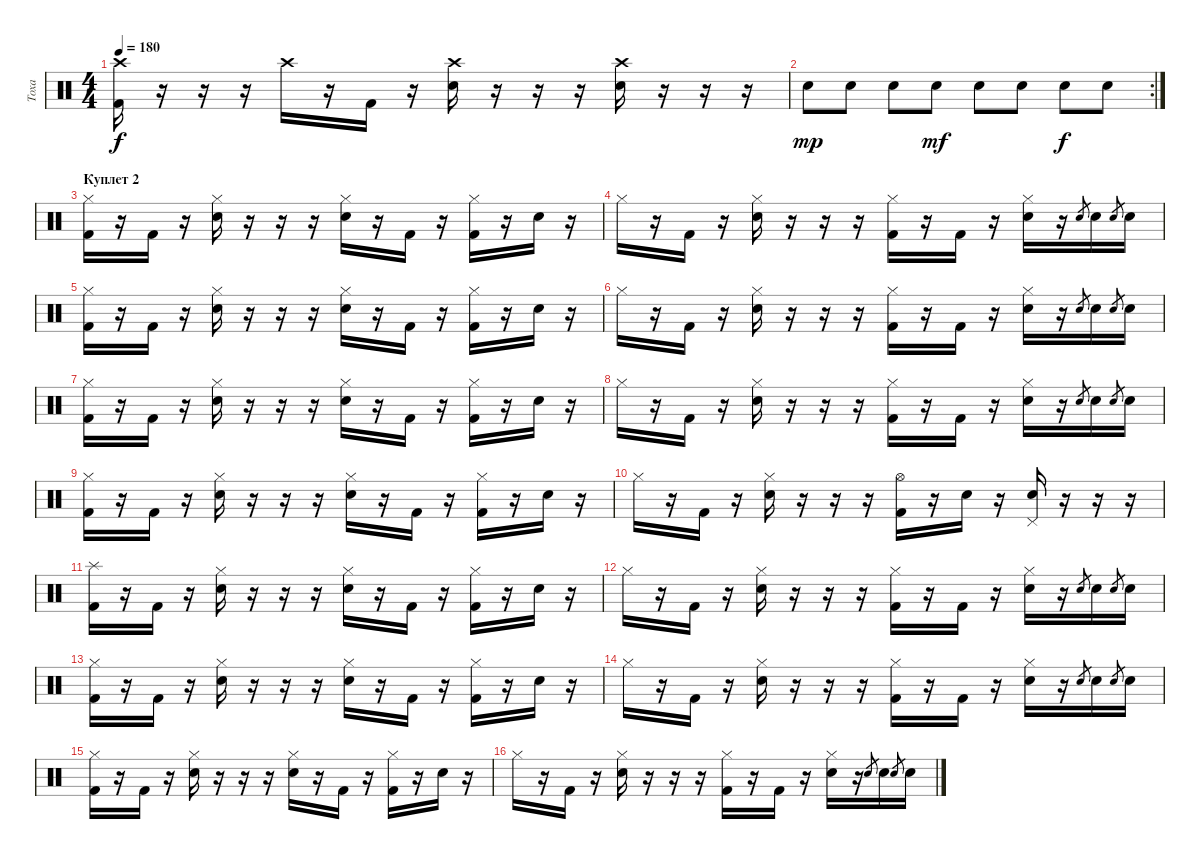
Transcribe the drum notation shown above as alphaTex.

\track ("Тоха" "Тоха") {instrument percussion}
\staff {score}
\articulation defaults
\ts (4 4)
\tempo 180
\clef neutral
\ks c
("Crash high (hit)" "Kick (hit) 2").16{dy f} r.16 r.16 r.16 "Crash high (hit)".16 r.16 "Kick (hit) 2".16 r.16 ("Crash high (hit)" "Electric Snare (hit)").16 r.16 r.16 r.16 ("Crash high (hit)" "Electric Snare (hit)").16 r.16 r.16 r.16 |
\rc 2 "Electric Snare (hit)".8{dy mp} "Electric Snare (hit)".8 "Electric Snare (hit)".8 "Electric Snare (hit)".8{dy mf} "Electric Snare (hit)".8 "Electric Snare (hit)".8 "Electric Snare (hit)".8{dy f} "Electric Snare (hit)".8
|
\section ("" "Куплет 2")
("Hi-Hat (closed)" "Kick (hit) 2").16 r.16 "Kick (hit) 2".16 r.16 ("Hi-Hat (closed)" "Electric Snare (hit)").16 r.16 r.16 r.16 ("Hi-Hat (closed)" "Electric Snare (hit)").16 r.16 "Kick (hit) 2".16 r.16 ("Hi-Hat (closed)" "Kick (hit) 2").16 r.16 "Electric Snare (hit)".16 r.16 |
"Hi-Hat (closed)".16 r.16 "Kick (hit) 2".16 r.16 ("Hi-Hat (closed)" "Electric Snare (hit)").16 r.16 r.16 r.16 ("Hi-Hat (closed)" "Kick (hit) 2").16 r.16 "Kick (hit) 2".16 r.16 ("Hi-Hat (closed)" "Electric Snare (hit)").16 r.16 "Electric Snare (hit)".8{gr} "Electric Snare (hit)".16 "Electric Snare (hit)".8{gr} "Electric Snare (hit)".16 |
("Hi-Hat (closed)" "Kick (hit) 2").16 r.16 "Kick (hit) 2".16 r.16 ("Hi-Hat (closed)" "Electric Snare (hit)").16 r.16 r.16 r.16 ("Hi-Hat (closed)" "Electric Snare (hit)").16 r.16 "Kick (hit) 2".16 r.16 ("Hi-Hat (closed)" "Kick (hit) 2").16 r.16 "Electric Snare (hit)".16 r.16 |
"Hi-Hat (closed)".16 r.16 "Kick (hit) 2".16 r.16 ("Hi-Hat (closed)" "Electric Snare (hit)").16 r.16 r.16 r.16 ("Hi-Hat (closed)" "Kick (hit) 2").16 r.16 "Kick (hit) 2".16 r.16 ("Hi-Hat (closed)" "Electric Snare (hit)").16 r.16 "Electric Snare (hit)".8{gr} "Electric Snare (hit)".16 "Electric Snare (hit)".8{gr} "Electric Snare (hit)".16 |
("Hi-Hat (closed)" "Kick (hit) 2").16 r.16 "Kick (hit) 2".16 r.16 ("Hi-Hat (closed)" "Electric Snare (hit)").16 r.16 r.16 r.16 ("Hi-Hat (closed)" "Electric Snare (hit)").16 r.16 "Kick (hit) 2".16 r.16 ("Hi-Hat (closed)" "Kick (hit) 2").16 r.16 "Electric Snare (hit)".16 r.16 |
"Hi-Hat (closed)".16 r.16 "Kick (hit) 2".16 r.16 ("Hi-Hat (closed)" "Electric Snare (hit)").16 r.16 r.16 r.16 ("Hi-Hat (closed)" "Kick (hit) 2").16 r.16 "Kick (hit) 2".16 r.16 ("Hi-Hat (closed)" "Electric Snare (hit)").16 r.16 "Electric Snare (hit)".8{gr} "Electric Snare (hit)".16 "Electric Snare (hit)".8{gr} "Electric Snare (hit)".16 |
("Hi-Hat (closed)" "Kick (hit) 2").16 r.16 "Kick (hit) 2".16 r.16 ("Hi-Hat (closed)" "Electric Snare (hit)").16 r.16 r.16 r.16 ("Hi-Hat (closed)" "Electric Snare (hit)").16 r.16 "Kick (hit) 2".16 r.16 ("Hi-Hat (closed)" "Kick (hit) 2").16 r.16 "Electric Snare (hit)".16 r.16 |
"Hi-Hat (closed)".16 r.16 "Kick (hit) 2".16 r.16 ("Hi-Hat (closed)" "Electric Snare (hit)").16 r.16 r.16 r.16 ("Hi-Hat (open)" "Kick (hit) 2").16 r.16 "Electric Snare (hit)".16 r.16 ("Pedal Hi-Hat (hit)" "Electric Snare (hit)").16 r.16 r.16 r.16 |
("Splash (hit)" "Kick (hit) 2").16 r.16 "Kick (hit) 2".16 r.16 ("Hi-Hat (closed)" "Electric Snare (hit)").16 r.16 r.16 r.16 ("Hi-Hat (closed)" "Electric Snare (hit)").16 r.16 "Kick (hit) 2".16 r.16 ("Hi-Hat (closed)" "Kick (hit) 2").16 r.16 "Electric Snare (hit)".16 r.16 |
"Hi-Hat (closed)".16 r.16 "Kick (hit) 2".16 r.16 ("Hi-Hat (closed)" "Electric Snare (hit)").16 r.16 r.16 r.16 ("Hi-Hat (closed)" "Kick (hit) 2").16 r.16 "Kick (hit) 2".16 r.16 ("Hi-Hat (closed)" "Electric Snare (hit)").16 r.16 "Electric Snare (hit)".8{gr} "Electric Snare (hit)".16 "Electric Snare (hit)".8{gr} "Electric Snare (hit)".16 |
("Hi-Hat (closed)" "Kick (hit) 2").16 r.16 "Kick (hit) 2".16 r.16 ("Hi-Hat (closed)" "Electric Snare (hit)").16 r.16 r.16 r.16 ("Hi-Hat (closed)" "Electric Snare (hit)").16 r.16 "Kick (hit) 2".16 r.16 ("Hi-Hat (closed)" "Kick (hit) 2").16 r.16 "Electric Snare (hit)".16 r.16 |
"Hi-Hat (closed)".16 r.16 "Kick (hit) 2".16 r.16 ("Hi-Hat (closed)" "Electric Snare (hit)").16 r.16 r.16 r.16 ("Hi-Hat (closed)" "Kick (hit) 2").16 r.16 "Kick (hit) 2".16 r.16 ("Hi-Hat (closed)" "Electric Snare (hit)").16 r.16 "Electric Snare (hit)".8{gr} "Electric Snare (hit)".16 "Electric Snare (hit)".8{gr} "Electric Snare (hit)".16 |
("Hi-Hat (closed)" "Kick (hit) 2").16 r.16 "Kick (hit) 2".16 r.16 ("Hi-Hat (closed)" "Electric Snare (hit)").16 r.16 r.16 r.16 ("Hi-Hat (closed)" "Electric Snare (hit)").16 r.16 "Kick (hit) 2".16 r.16 ("Hi-Hat (closed)" "Kick (hit) 2").16 r.16 "Electric Snare (hit)".16 r.16 |
"Hi-Hat (closed)".16 r.16 "Kick (hit) 2".16 r.16 ("Hi-Hat (closed)" "Electric Snare (hit)").16 r.16 r.16 r.16 ("Hi-Hat (closed)" "Kick (hit) 2").16 r.16 "Kick (hit) 2".16 r.16 ("Hi-Hat (closed)" "Electric Snare (hit)").16 r.16 "Electric Snare (hit)".8{gr} "Electric Snare (hit)".16 "Electric Snare (hit)".8{gr} "Electric Snare (hit)".16
